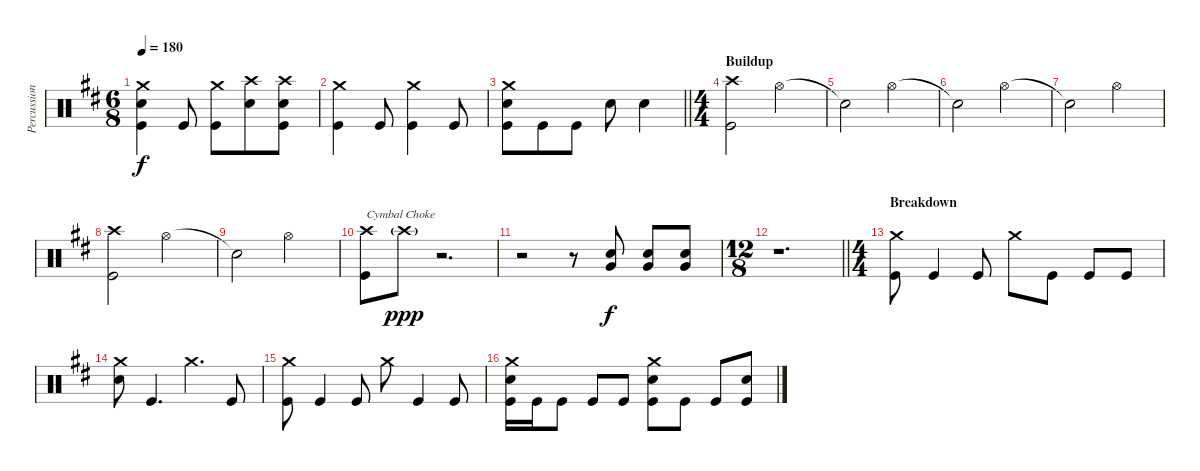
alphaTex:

\track ("Percussion" "Percussion") {instrument percussion}
\staff {score}
\articulation defaults
\ts (6 8)
\tempo 180
\clef neutral
\ks d
("Crash medium (hit)" "Electric Snare (hit)" "Kick (hit)").4{dy f} "Kick (hit)".8 ("Crash medium (hit)" "Kick (hit)").8 ("Crash high (hit)" "Electric Snare (hit)").8 ("Crash high (hit)" "Electric Snare (hit)" "Kick (hit)").8 |
("Crash medium (hit)" "Kick (hit)").4 "Kick (hit)".8 ("Crash medium (hit)" "Kick (hit)").4 "Kick (hit)".8 |
\barLineRight lightlight
("Crash medium (hit)" "Electric Snare (hit)" "Kick (hit)").8 "Kick (hit)".8 "Kick (hit)".8 "Electric Snare (hit)".8 "Electric Snare (hit)".4 |
\ts (4 4)
\section ("" "Buildup")
("Crash high (hit)" "Kick (hit)").2 "Hi-Hat (open)".2 |
"Snare (hit)"{t}.2 "Hi-Hat (open)".2 |
"Snare (hit)"{t}.2 "Hi-Hat (open)".2 |
"Snare (hit)"{t}.2 "Hi-Hat (open)".2 |
("Crash high (hit)" "Kick (hit)").2 "Hi-Hat (open)".2 |
"Snare (hit)"{t}.2 "Hi-Hat (open)".2 |
("Crash high (hit)" "Kick (hit)").8{txt "Cymbal Choke"} "Crash high (hit)"{g}.8{dy ppp volume 0} r.2{d} |
r.2 r.8 ("Electric Snare (hit)" "Very Low Tom (hit)").8{dy f volume 13} ("Electric Snare (hit)" "Very Low Tom (hit)").8 ("Electric Snare (hit)" "Very Low Tom (hit)").8 |
\ts (12 8)
\barLineRight lightlight
r.1{d} |
\ts (4 4)
\section ("" "Breakdown")
("Crash medium (hit)" "Kick (hit)").8 "Kick (hit)".4 "Kick (hit)".8 "Crash medium (hit)".8 "Kick (hit)".8 "Kick (hit)".8 "Kick (hit)".8 |
("Crash medium (hit)" "Electric Snare (hit)").8 "Kick (hit)".4{d} "Crash medium (hit)".4{d} "Kick (hit)".8 |
("Crash medium (hit)" "Kick (hit)").8 "Kick (hit)".4 "Kick (hit)".8 "Crash medium (hit)".8 "Kick (hit)".4 "Kick (hit)".8 |
("Crash medium (hit)" "Electric Snare (hit)" "Kick (hit)").16 "Kick (hit)".16 "Kick (hit)".8 "Kick (hit)".8 "Kick (hit)".8 ("Crash medium (hit)" "Electric Snare (hit)" "Kick (hit)").8 "Kick (hit)".8 "Kick (hit)".8 ("Electric Snare (hit)" "Kick (hit)").8
